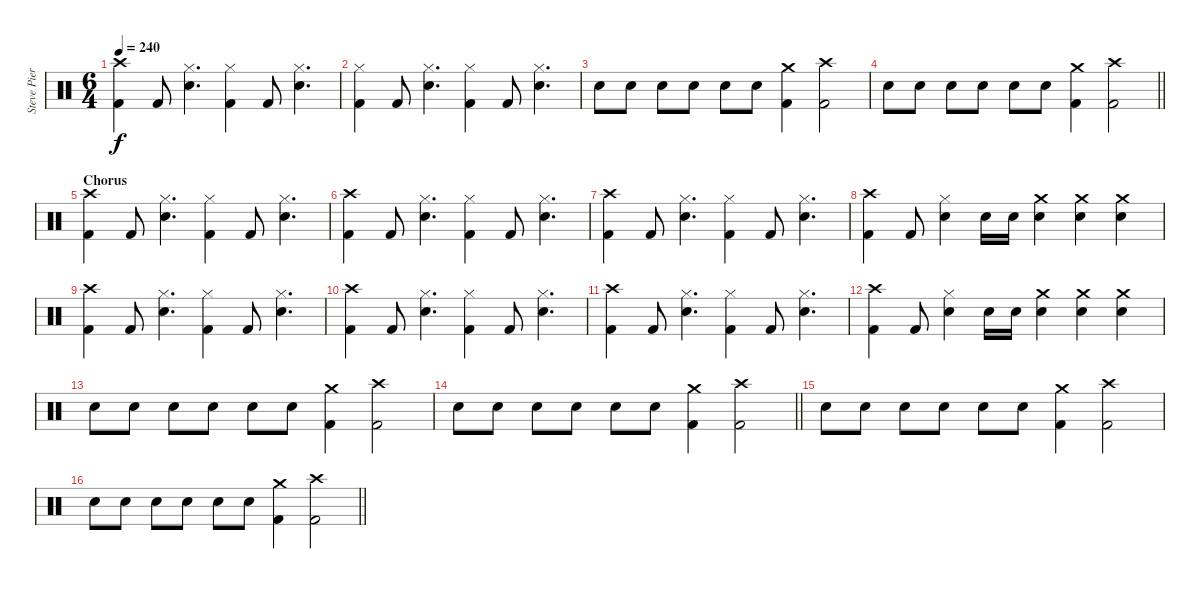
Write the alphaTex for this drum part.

\track ("Steve Pierce" "Steve Pier") {instrument percussion}
\staff {score}
\articulation defaults
\ts (6 4)
\tempo 240
\clef neutral
\ks c
("Crash high (hit)" "Kick (hit) 2").4{dy f} "Kick (hit) 2".8 ("Hi-Hat (closed)" "Snare (hit) 2").4{d} ("Hi-Hat (closed)" "Kick (hit) 2").4 "Kick (hit) 2".8 ("Hi-Hat (closed)" "Snare (hit) 2").4{d} |
("Hi-Hat (closed)" "Kick (hit) 2").4 "Kick (hit) 2".8 ("Hi-Hat (closed)" "Snare (hit) 2").4{d} ("Hi-Hat (closed)" "Kick (hit) 2").4 "Kick (hit) 2".8 ("Hi-Hat (closed)" "Snare (hit) 2").4{d} |
"Snare (hit) 2".8 "Snare (hit) 2".8 "Snare (hit) 2".8 "Snare (hit) 2".8 "Snare (hit) 2".8 "Snare (hit) 2".8 ("Crash medium (hit)" "Kick (hit) 2").4 ("Crash high (hit)" "Kick (hit) 2").2 |
\barLineRight lightlight "Snare (hit) 2".8 "Snare (hit) 2".8 "Snare (hit) 2".8 "Snare (hit) 2".8 "Snare (hit) 2".8 "Snare (hit) 2".8
("Crash medium (hit)" "Kick (hit) 2").4 ("Crash high (hit)" "Kick (hit) 2").2 |
\section ("" "Chorus")
("Crash high (hit)" "Kick (hit) 2").4 "Kick (hit) 2".8 ("Hi-Hat (closed)" "Snare (hit) 2").4{d} ("Hi-Hat (closed)" "Kick (hit) 2").4 "Kick (hit) 2".8 ("Hi-Hat (closed)" "Snare (hit) 2").4{d} |
("Crash high (hit)" "Kick (hit) 2").4 "Kick (hit) 2".8 ("Hi-Hat (closed)" "Snare (hit) 2").4{d} ("Hi-Hat (closed)" "Kick (hit) 2").4 "Kick (hit) 2".8 ("Hi-Hat (closed)" "Snare (hit) 2").4{d} |
("Crash high (hit)" "Kick (hit) 2").4 "Kick (hit) 2".8 ("Hi-Hat (closed)" "Snare (hit) 2").4{d} ("Hi-Hat (closed)" "Kick (hit) 2").4 "Kick (hit) 2".8 ("Hi-Hat (closed)" "Snare (hit) 2").4{d} |
("Crash high (hit)" "Kick (hit) 2").4 "Kick (hit) 2".8 ("Hi-Hat (closed)" "Snare (hit) 2").4 "Snare (hit) 2".16 "Snare (hit) 2".16 ("Crash medium (hit)" "Snare (hit) 2").4 ("Crash medium (hit)" "Snare (hit) 2").4 ("Crash medium (hit)" "Snare (hit) 2").4 |
("Crash high (hit)" "Kick (hit) 2").4 "Kick (hit) 2".8 ("Hi-Hat (closed)" "Snare (hit) 2").4{d} ("Hi-Hat (closed)" "Kick (hit) 2").4 "Kick (hit) 2".8 ("Hi-Hat (closed)" "Snare (hit) 2").4{d} |
("Crash high (hit)" "Kick (hit) 2").4 "Kick (hit) 2".8 ("Hi-Hat (closed)" "Snare (hit) 2").4{d} ("Hi-Hat (closed)" "Kick (hit) 2").4 "Kick (hit) 2".8 ("Hi-Hat (closed)" "Snare (hit) 2").4{d} |
("Crash high (hit)" "Kick (hit) 2").4 "Kick (hit) 2".8 ("Hi-Hat (closed)" "Snare (hit) 2").4{d} ("Hi-Hat (closed)" "Kick (hit) 2").4 "Kick (hit) 2".8 ("Hi-Hat (closed)" "Snare (hit) 2").4{d} |
("Crash high (hit)" "Kick (hit) 2").4 "Kick (hit) 2".8 ("Hi-Hat (closed)" "Snare (hit) 2").4 "Snare (hit) 2".16 "Snare (hit) 2".16 ("Crash medium (hit)" "Snare (hit) 2").4 ("Crash medium (hit)" "Snare (hit) 2").4 ("Crash medium (hit)" "Snare (hit) 2").4 |
"Snare (hit) 2".8 "Snare (hit) 2".8 "Snare (hit) 2".8 "Snare (hit) 2".8 "Snare (hit) 2".8 "Snare (hit) 2".8 ("Crash medium (hit)" "Kick (hit) 2").4 ("Crash high (hit)" "Kick (hit) 2").2 |
\barLineRight lightlight "Snare (hit) 2".8 "Snare (hit) 2".8 "Snare (hit) 2".8 "Snare (hit) 2".8 "Snare (hit) 2".8 "Snare (hit) 2".8
("Crash medium (hit)" "Kick (hit) 2").4 ("Crash high (hit)" "Kick (hit) 2").2 |
"Snare (hit) 2".8 "Snare (hit) 2".8 "Snare (hit) 2".8 "Snare (hit) 2".8 "Snare (hit) 2".8 "Snare (hit) 2".8 ("Crash medium (hit)" "Kick (hit) 2").4 ("Crash high (hit)" "Kick (hit) 2").2 |
\barLineRight lightlight "Snare (hit) 2".8 "Snare (hit) 2".8 "Snare (hit) 2".8 "Snare (hit) 2".8 "Snare (hit) 2".8 "Snare (hit) 2".8
("Crash medium (hit)" "Kick (hit) 2").4 ("Crash high (hit)" "Kick (hit) 2").2
